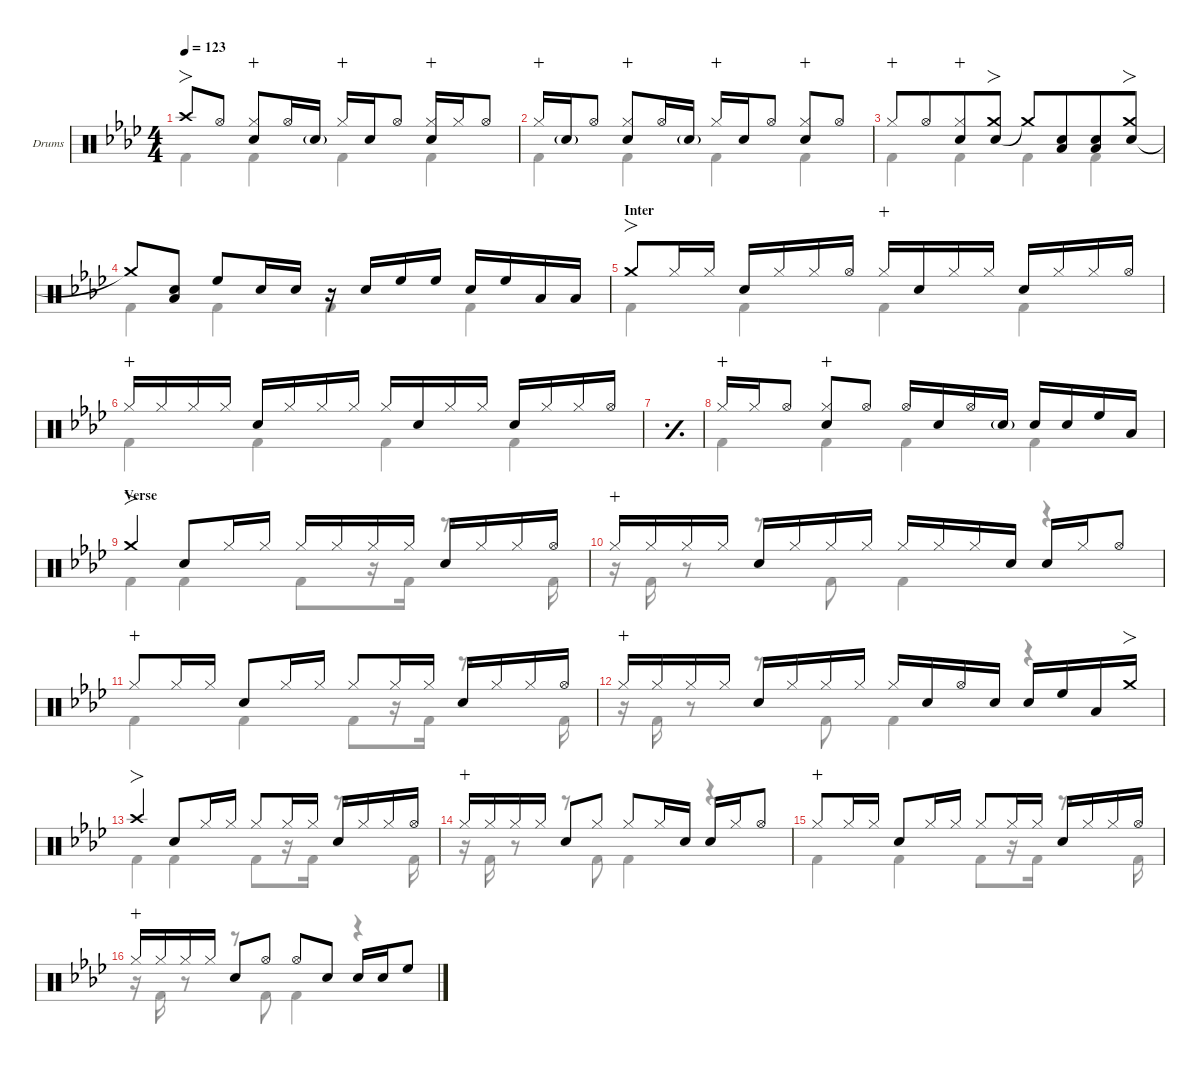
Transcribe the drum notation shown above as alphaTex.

\defaultSystemsLayout 4
\hideDynamics
\bracketExtendMode nobrackets
\firstSystemTrackNameOrientation horizontal
\track ("Drums" "Drums") {defaultSystemsLayout 4 instrument percussion}
\staff {score}
\articulation defaults
\voice
\ts (4 4)
\tempo 123
\clef neutral
\scale
0.265513
\ks ab "Crash high (hit)"{acc forcenatural}.8{fo dy f beam Up} "Hi-Hat (open)"{acc forcenatural}.8{beam Up}
("Snare (hit) 2"{acc forcenatural} "Hi-Hat (closed)"{acc forcenatural}).8{wahc beam Up beam merge} "Hi-Hat (open)"{acc forcenatural}.16{beam Up} "Snare (hit) 2"{g acc forcenatural}.16{dy mf beam Up} "Hi-Hat (closed)"{acc forcenatural}.16{dy mp wahc beam Up} "Snare (hit) 2"{acc forcenatural}.16{dy f beam Up} "Hi-Hat (open)"{acc forcenatural}.8{beam Up} ("Snare (hit) 2"{acc forcenatural} "Hi-Hat (closed)"{acc forcenatural}).16{wahc beam Up} "Hi-Hat (closed)"{acc forcenatural}.16{beam Up} "Hi-Hat (open)"{acc forcenatural}.8{beam Up} |
\scale
0.245566 "Hi-Hat (closed)"{acc forcenatural}.16{dy mp wahc beam Up} "Snare (hit) 2"{g acc forcenatural}.16{dy mf beam Up} "Hi-Hat (open)"{acc forcenatural}.8{dy f beam Up} ("Snare (hit) 2"{acc forcenatural} "Hi-Hat (closed)"{acc forcenatural}).8{wahc beam Up beam merge} "Hi-Hat (open)"{acc forcenatural}.16{beam Up} "Snare (hit) 2"{g acc forcenatural}.16{dy mf beam Up} "Hi-Hat (closed)"{acc forcenatural}.16{dy mp wahc beam Up} "Snare (hit) 2"{acc forcenatural}.16{dy f beam Up} "Hi-Hat (open)"{acc forcenatural}.8{beam Up} ("Snare (hit) 2"{acc forcenatural} "Hi-Hat (closed)"{acc forcenatural}).8{wahc beam Up beam merge} "Hi-Hat (open)"{acc forcenatural}.8{beam Up} |
\scale
0.24446 "Hi-Hat (closed)"{acc forcenatural}.8{dy mp wahc beam Up beam merge} "Hi-Hat (open)"{acc forcenatural}.8{dy f beam Up beam merge} ("Hi-Hat (closed)"{acc forcenatural} "Snare (hit) 2"{acc forcenatural}).8{wahc beam Up beam merge} ("Snare (hit) 2"{acc forcenatural} "Crash medium (hit)"{acc forcenatural}).8{fo beam Up} "Crash medium (hit)"{t acc forcenatural}.8{beam Up beam merge} ("Snare (hit) 2"{acc forcenatural} "Low Tom (hit)"{acc forcenatural}).8{beam Up beam merge} ("Snare (hit) 2"{acc forcenatural} "Low Tom (hit)"{acc forcenatural}).8{beam Up beam merge} ("Snare (hit) 2"{acc forcenatural} "Crash medium (hit)"{acc forcenatural}).8{fo beam Up} |
\scale
0.244461 "Crash medium (hit)"{t acc forcenatural}.8{beam Up} ("Snare (hit) 2"{acc forcenatural} "Low Tom (hit)"{acc forcenatural}).8{beam Up} "High Floor Tom (hit)"{acc forcenatural}.8{beam Up} "Snare (hit) 2"{acc forcenatural}.16{beam Up} "Snare (hit) 2"{acc forcenatural}.16{dy mf beam Up} r.16{beam Up} "Snare (hit) 2"{acc forcenatural}.16{dy f beam Up} "High Floor Tom (hit)"{acc forcenatural}.16{beam Up} "High Floor Tom (hit)"{acc forcenatural}.16{beam Up} "Snare (hit) 2"{acc forcenatural}.16{beam Up} "High Floor Tom (hit)"{acc forcenatural}.16{beam Up} "Low Tom (hit)"{acc forcenatural}.16{beam Up} "Low Tom (hit)"{acc forcenatural}.16{beam Up} |
\section ("" "Inter")
\scale
0.265513 "Crash medium (hit)"{acc forcenatural}.8{fo beam Up} "Hi-Hat (closed)"{acc forcenatural}.16{beam Up} "Hi-Hat (closed)"{acc forcenatural}.16{dy mp beam Up} "Snare (hit) 2"{acc forcenatural}.16{dy f beam Up} "Hi-Hat (closed)"{acc forcenatural}.16{dy mp beam Up} "Hi-Hat (closed)"{acc forcenatural}.16{dy f beam Up} "Hi-Hat (open)"{acc forcenatural}.16{beam Up} "Hi-Hat (closed)"{acc forcenatural}.16{dy mp wahc beam Up} "Snare (hit) 2"{acc forcenatural}.16{dy f beam Up} "Hi-Hat (closed)"{acc forcenatural}.16{beam Up} "Hi-Hat (closed)"{acc forcenatural}.16{dy mp beam Up} "Snare (hit) 2"{acc forcenatural}.16{dy f beam Up} "Hi-Hat (closed)"{acc forcenatural}.16{dy mp beam Up} "Hi-Hat (closed)"{acc forcenatural}.16{dy f beam Up} "Hi-Hat (open)"{acc forcenatural}.16{beam Up} |
\scale
0.245566 "Hi-Hat (closed)"{acc forcenatural}.16{dy mp wahc beam Up} "Hi-Hat (closed)"{acc forcenatural}.16{beam Up} "Hi-Hat (closed)"{acc forcenatural}.16{dy f beam Up} "Hi-Hat (closed)"{acc forcenatural}.16{dy mp beam Up} "Snare (hit) 2"{acc forcenatural}.16{dy f beam Up} "Hi-Hat (closed)"{acc forcenatural}.16{dy mp beam Up} "Hi-Hat (closed)"{acc forcenatural}.16{dy f beam Up} "Hi-Hat (closed)"{acc forcenatural}.16{dy mp beam Up} "Hi-Hat (closed)"{acc forcenatural}.16{dy f beam Up} "Snare (hit) 2"{acc forcenatural}.16{beam Up} "Hi-Hat (closed)"{acc forcenatural}.16{beam Up} "Hi-Hat (closed)"{acc forcenatural}.16{dy mp beam Up} "Snare (hit) 2"{acc forcenatural}.16{dy f beam Up} "Hi-Hat (closed)"{acc forcenatural}.16{dy mp beam Up} "Hi-Hat (closed)"{acc forcenatural}.16{dy f beam Up} "Hi-Hat (open)"{acc forcenatural}.16{beam Up} |
\simile simple
\scale
0.24446 |
\simile none
\scale
0.244461 "Hi-Hat (closed)"{acc forcenatural}.16{dy mp wahc beam Up} "Hi-Hat (closed)"{acc forcenatural}.16{dy f beam Up} "Hi-Hat (open)"{acc forcenatural}.8{beam Up} ("Hi-Hat (closed)"{acc forcenatural} "Snare (hit) 2"{acc forcenatural}).8{wahc beam Up} "Hi-Hat (open)"{acc forcenatural}.8{beam Up} "Hi-Hat (open)"{acc forcenatural}.16{beam Up} "Snare (hit) 2"{acc forcenatural}.16{beam Up} "Hi-Hat (open)"{acc forcenatural}.16{beam Up} "Snare (hit) 2"{g acc forcenatural}.16{dy mf beam Up} "Snare (hit) 2"{acc forcenatural}.16{dy f beam Up} "Snare (hit) 2"{acc forcenatural}.16{beam Up} "High Floor Tom (hit)"{acc forcenatural}.16{beam Up} "Low Tom (hit)"{acc forcenatural}.16{beam Up} |
\section ("" "Verse")
\scale
0.265513 "Crash medium (hit)"{acc forcenatural}.4{fo beam Up} "Snare (hit) 2"{acc forcenatural}.8{beam Up} "Hi-Hat (closed)"{acc forcenatural}.16{beam Up} "Hi-Hat (closed)"{acc forcenatural}.16{beam Up} "Hi-Hat (closed)"{acc forcenatural}.16{beam Up} "Hi-Hat (closed)"{acc forcenatural}.16{dy mp beam Up} "Hi-Hat (closed)"{acc forcenatural}.16{dy f beam Up} "Hi-Hat (closed)"{acc forcenatural}.16{dy mp beam Up} "Snare (hit) 2"{acc forcenatural}.16{dy f beam Up} "Hi-Hat (closed)"{acc forcenatural}.16{dy mp beam Up} "Hi-Hat (closed)"{acc forcenatural}.16{dy f beam Up} "Hi-Hat (open)"{acc forcenatural}.16{beam Up} |
\scale
0.245566 "Hi-Hat (closed)"{acc forcenatural}.16{dy mp wahc beam Up} "Hi-Hat (closed)"{acc forcenatural}.16{beam Up} "Hi-Hat (closed)"{acc forcenatural}.16{dy f beam Up} "Hi-Hat (closed)"{acc forcenatural}.16{dy mp beam Up} "Snare (hit) 2"{acc forcenatural}.16{dy f beam Up} "Hi-Hat (closed)"{acc forcenatural}.16{dy mp beam Up} "Hi-Hat (closed)"{acc forcenatural}.16{dy f beam Up} "Hi-Hat (closed)"{acc forcenatural}.16{dy mp beam Up} "Hi-Hat (closed)"{acc forcenatural}.16{dy f beam Up} "Hi-Hat (closed)"{acc forcenatural}.16{dy mp beam Up} "Hi-Hat (closed)"{acc forcenatural}.16{dy f beam Up} "Snare (hit) 2"{acc forcenatural}.16{dy mf beam Up} "Snare (hit) 2"{acc forcenatural}.16{dy f beam Up} "Hi-Hat (closed)"{acc forcenatural}.16{dy mp beam Up} "Hi-Hat (open)"{acc forcenatural}.8{dy f beam Up} |
\scale
0.244461 "Hi-Hat (closed)"{acc forcenatural}.8{dy mp wahc beam Up} "Hi-Hat (closed)"{acc forcenatural}.16{dy f beam Up} "Hi-Hat (closed)"{acc forcenatural}.16{dy mp beam Up} "Snare (hit) 2"{acc forcenatural}.8{dy f beam Up} "Hi-Hat (closed)"{acc forcenatural}.16{beam Up} "Hi-Hat (closed)"{acc forcenatural}.16{dy mp beam Up} "Hi-Hat (closed)"{acc forcenatural}.8{dy f beam Up} "Hi-Hat (closed)"{acc forcenatural}.16{beam Up} "Hi-Hat (closed)"{acc forcenatural}.16{dy mp beam Up} "Snare (hit) 2"{acc forcenatural}.16{dy f beam Up} "Hi-Hat (closed)"{acc forcenatural}.16{dy mp beam Up} "Hi-Hat (closed)"{acc forcenatural}.16{dy f beam Up} "Hi-Hat (open)"{acc forcenatural}.16{beam Up} |
\scale
0.244461 "Hi-Hat (closed)"{acc forcenatural}.16{dy mp wahc beam Up} "Hi-Hat (closed)"{acc forcenatural}.16{beam Up} "Hi-Hat (closed)"{acc forcenatural}.16{dy f beam Up} "Hi-Hat (closed)"{acc forcenatural}.16{dy mp beam Up} "Snare (hit) 2"{acc forcenatural}.16{dy f beam Up} "Hi-Hat (closed)"{acc forcenatural}.16{dy mp beam Up} "Hi-Hat (closed)"{acc forcenatural}.16{dy f beam Up} "Hi-Hat (closed)"{acc forcenatural}.16{dy mp beam Up} "Hi-Hat (closed)"{acc forcenatural}.16{dy f beam Up} "Snare (hit) 2"{acc forcenatural}.16{beam Up} "Hi-Hat (open)"{acc forcenatural}.16{beam Up} "Snare (hit) 2"{acc forcenatural}.16{dy mf beam Up} "Snare (hit) 2"{acc forcenatural}.16{dy f beam Up} "High Floor Tom (hit)"{acc forcenatural}.16{beam Up} "Low Tom (hit)"{acc forcenatural}.16{beam Up} "Crash medium (hit)"{acc forcenatural}.16{fo beam Up} |
\scale
0.265513 "Crash high (hit)"{acc forcenatural}.4{fo beam Up} "Snare (hit) 2"{acc forcenatural}.8{beam Up} "Hi-Hat (closed)"{acc forcenatural}.16{beam Up} "Hi-Hat (closed)"{acc forcenatural}.16{beam Up} "Hi-Hat (closed)"{acc forcenatural}.8{beam Up} "Hi-Hat (closed)"{acc forcenatural}.16{beam Up} "Hi-Hat (closed)"{acc forcenatural}.16{dy mp beam Up} "Snare (hit) 2"{acc forcenatural}.16{dy f beam Up} "Hi-Hat (closed)"{acc forcenatural}.16{dy mp beam Up} "Hi-Hat (closed)"{acc forcenatural}.16{dy f beam Up} "Hi-Hat (open)"{acc forcenatural}.16{beam Up} |
\scale
0.245566 "Hi-Hat (closed)"{acc forcenatural}.16{dy mp wahc beam Up} "Hi-Hat (closed)"{acc forcenatural}.16{beam Up} "Hi-Hat (closed)"{acc forcenatural}.16{dy f beam Up} "Hi-Hat (closed)"{acc forcenatural}.16{dy mp beam Up} "Snare (hit) 2"{acc forcenatural}.8{dy f beam Up} "Hi-Hat (closed)"{acc forcenatural}.8{beam Up} "Hi-Hat (closed)"{acc forcenatural}.8{beam Up} "Hi-Hat (closed)"{acc forcenatural}.16{beam Up} "Snare (hit) 2"{acc forcenatural}.16{dy mf beam Up} "Snare (hit) 2"{acc forcenatural}.16{dy f beam Up} "Hi-Hat (closed)"{acc forcenatural}.16{dy mp beam Up} "Hi-Hat (open)"{acc forcenatural}.8{dy f beam Up} |
\scale
0.24446 "Hi-Hat (closed)"{acc forcenatural}.8{dy mp wahc beam Up} "Hi-Hat (closed)"{acc forcenatural}.16{dy f beam Up} "Hi-Hat (closed)"{acc forcenatural}.16{dy mp beam Up} "Snare (hit) 2"{acc forcenatural}.8{dy f beam Up} "Hi-Hat (closed)"{acc forcenatural}.16{beam Up} "Hi-Hat (closed)"{acc forcenatural}.16{dy mp beam Up} "Hi-Hat (closed)"{acc forcenatural}.8{dy f beam Up} "Hi-Hat (closed)"{acc forcenatural}.16{beam Up} "Hi-Hat (closed)"{acc forcenatural}.16{dy mp beam Up} "Snare (hit) 2"{acc forcenatural}.16{dy f beam Up} "Hi-Hat (closed)"{acc forcenatural}.16{dy mp beam Up} "Hi-Hat (closed)"{acc forcenatural}.16{dy f beam Up} "Hi-Hat (open)"{acc forcenatural}.16{beam Up} |
\scale
0.244461 "Hi-Hat (closed)"{acc forcenatural}.16{dy mp wahc beam Up} "Hi-Hat (closed)"{acc forcenatural}.16{beam Up} "Hi-Hat (closed)"{acc forcenatural}.16{dy f beam Up} "Hi-Hat (closed)"{acc forcenatural}.16{dy mp beam Up} "Snare (hit) 2"{acc forcenatural}.8{dy f beam Up} "Hi-Hat (open)"{acc forcenatural}.8{dy mf beam Up} "Hi-Hat (open)"{acc forcenatural}.8{beam Up} "Snare (hit) 2"{acc forcenatural}.8{dy f beam Up} "Snare (hit) 2"{acc forcenatural}.16{beam Up} "Snare (hit) 2"{acc forcenatural}.16{dy mf beam Up} "High Floor Tom (hit)"{acc forcenatural}.8{dy f beam Up}
\voice
\clef neutral
\ottava regular
\simile none
\scale
0.265513
\ks ab "Kick (hit) 2"{acc forcenatural}.4{dy f beam Down} "Kick (hit) 2"{acc forcenatural}.4{beam Down} "Kick (hit) 2"{acc forcenatural}.4{beam Down} "Kick (hit) 2"{acc forcenatural}.4{beam Down}
|
\scale
0.245566 "Kick (hit) 2"{acc forcenatural}.4{beam Down} "Kick (hit) 2"{acc forcenatural}.4{beam Down} "Kick (hit) 2"{acc forcenatural}.4{beam Down} "Kick (hit) 2"{acc forcenatural}.4{beam Down} |
\scale
0.24446 "Kick (hit) 2"{acc forcenatural}.4{beam Down} "Kick (hit) 2"{acc forcenatural}.4{beam Down} "Kick (hit) 2"{acc forcenatural}.4{beam Down} "Kick (hit) 2"{acc forcenatural}.4{beam Down} |
\scale
0.244461 "Kick (hit) 2"{acc forcenatural}.4{beam Down} "Kick (hit) 2"{acc forcenatural}.4{beam Down} "Kick (hit) 2"{acc forcenatural}.4{beam Down} "Kick (hit) 2"{acc forcenatural}.4{beam Down} |
\scale
0.265513 "Kick (hit) 2"{acc forcenatural}.4{beam Down} "Kick (hit) 2"{acc forcenatural}.4{beam Down} "Kick (hit) 2"{acc forcenatural}.4{beam Down} "Kick (hit) 2"{acc forcenatural}.4{beam Down} |
\scale
0.245566 "Kick (hit) 2"{acc forcenatural}.4{beam Down} "Kick (hit) 2"{acc forcenatural}.4{beam Down} "Kick (hit) 2"{acc forcenatural}.4{beam Down} "Kick (hit) 2"{acc forcenatural}.4{beam Down} |
\simile simple
\scale
0.24446 |
\simile none
\scale
0.244461 "Kick (hit) 2"{acc forcenatural}.4{beam Down} "Kick (hit) 2"{acc forcenatural}.4{beam Down} "Kick (hit) 2"{acc forcenatural}.4{beam Down} "Kick (hit) 2"{acc forcenatural}.4{beam Down} |
\scale
0.265513 "Kick (hit) 2"{acc forcenatural}.4{beam Down} "Kick (hit) 2"{acc forcenatural}.4{beam Down} "Kick (hit) 2"{acc forcenatural}.8{beam Down} r.16{beam Down} "Kick (hit) 2"{acc forcenatural}.16{beam Down} r.8{d beam Down} "Kick (hit) 2"{acc forcenatural}.16{beam Down} |
\scale
0.245566 r.16{beam Down} "Kick (hit) 2"{acc forcenatural}.16{beam Down} r.8{beam Down} r.8{beam Down} "Kick (hit) 2"{acc forcenatural}.8{beam Down} "Kick (hit) 2"{acc forcenatural}.4{beam Down} r.4{beam Down} |
\scale
0.244461 "Kick (hit) 2"{acc forcenatural}.4{beam Down} "Kick (hit) 2"{acc forcenatural}.4{beam Down} "Kick (hit) 2"{acc forcenatural}.8{beam Down} r.16{beam Down} "Kick (hit) 2"{acc forcenatural}.16{beam Down} r.8{d beam Down} "Kick (hit) 2"{acc forcenatural}.16{beam Down} |
\scale
0.244461 r.16{beam Down} "Kick (hit) 2"{acc forcenatural}.16{beam Down} r.8{beam Down} r.8{beam Down} "Kick (hit) 2"{acc forcenatural}.8{beam Down} "Kick (hit) 2"{acc forcenatural}.4{beam Down} r.4{beam Down} |
\scale
0.265513 "Kick (hit) 2"{acc forcenatural}.4{beam Down} "Kick (hit) 2"{acc forcenatural}.4{beam Down} "Kick (hit) 2"{acc forcenatural}.8{beam Down} r.16{beam Down} "Kick (hit) 2"{acc forcenatural}.16{beam Down} r.8{d beam Down} "Kick (hit) 2"{acc forcenatural}.16{beam Down} |
\scale
0.245566 r.16{beam Down} "Kick (hit) 2"{acc forcenatural}.16{beam Down} r.8{beam Down} r.8{beam Down} "Kick (hit) 2"{acc forcenatural}.8{beam Down} "Kick (hit) 2"{acc forcenatural}.4{beam Down} r.4{beam Down} |
\scale
0.24446 "Kick (hit) 2"{acc forcenatural}.4{beam Down} "Kick (hit) 2"{acc forcenatural}.4{beam Down} "Kick (hit) 2"{acc forcenatural}.8{beam Down} r.16{beam Down} "Kick (hit) 2"{acc forcenatural}.16{beam Down} r.8{d beam Down} "Kick (hit) 2"{acc forcenatural}.16{beam Down} |
\scale
0.244461 r.16{beam Down} "Kick (hit) 2"{acc forcenatural}.16{beam Down} r.8{beam Down} r.8{beam Down} "Kick (hit) 2"{acc forcenatural}.8{beam Down} "Kick (hit) 2"{acc forcenatural}.4{beam Down} r.4{beam Down}
